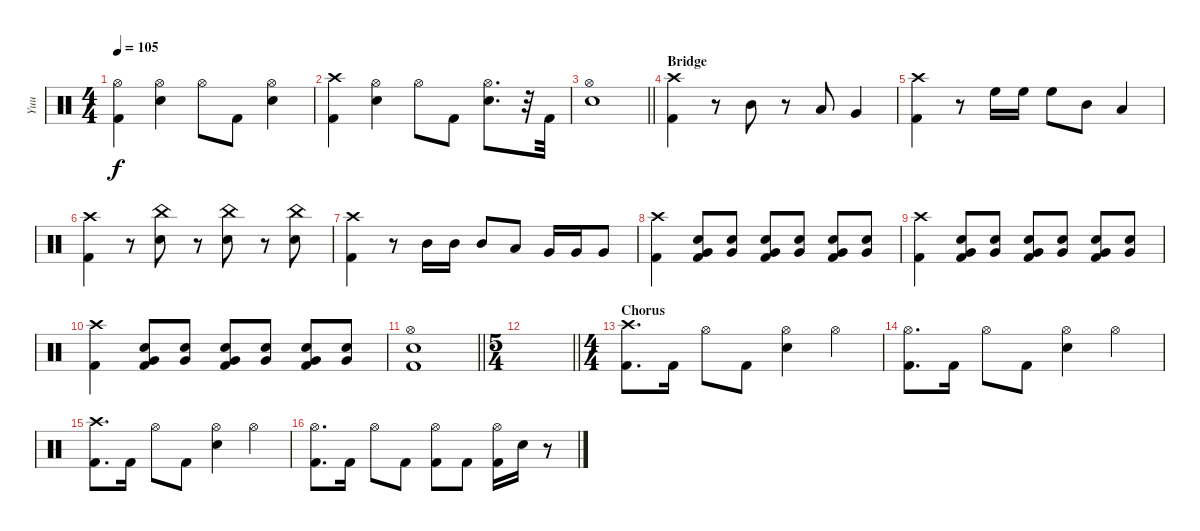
\track ("Yuu" "Yuu") {instrument percussion}
\staff {score}
\articulation defaults
\ts (4 4)
\tempo 105
\clef neutral
\ks c
("Hi-Hat (open)" "Kick (hit) 2").4{dy f} ("Hi-Hat (open)" "Electric Snare (hit)").4 "Hi-Hat (open)".8 "Kick (hit) 2".8 ("Hi-Hat (open)" "Electric Snare (hit)").4 |
("Crash high (hit)" "Kick (hit) 2").4 ("Hi-Hat (open)" "Electric Snare (hit)").4 "Hi-Hat (open)".8 "Kick (hit) 2".8 ("Hi-Hat (open)" "Electric Snare (hit)").8{d} r.32 "Kick (hit) 2".32 |
\barLineRight lightlight
("Hi-Hat (open)" "Electric Snare (hit)").1 |
\section ("" "Bridge")
("Crash high (hit)" "Kick (hit) 2").4 r.8 "Mid Tom (hit)".8 r.8 "Low Tom (hit)".8 "Very Low Tom (hit)".4 |
("Crash high (hit)" "Kick (hit) 2").4 r.8 "High Floor Tom (hit)".16 "High Floor Tom (hit)".16 "High Floor Tom (hit)".8 "Mid Tom (hit)".8 "Low Tom (hit)".4 |
("Crash high (hit)" "Kick (hit) 2").4 r.8 ("China (hit)" "Electric Snare (hit)").8 r.8 ("China (hit)" "Electric Snare (hit)").8 r.8 ("China (hit)" "Electric Snare (hit)").8 |
("Crash high (hit)" "Kick (hit) 2").4 r.8 "Mid Tom (hit)".16 "Mid Tom (hit)".16 "Mid Tom (hit)".8 "Low Tom (hit)".8 "Very Low Tom (hit)".16 "Very Low Tom (hit)".16 "Very Low Tom (hit)".8 |
("Crash high (hit)" "Kick (hit) 2").4 ("Electric Snare (hit)" "Very Low Tom (hit)" "Kick (hit) 2").8 ("Electric Snare (hit)" "Very Low Tom (hit)").8 ("Electric Snare (hit)" "Very Low Tom (hit)" "Kick (hit) 2").8 ("Electric Snare (hit)" "Very Low Tom (hit)").8 ("Electric Snare (hit)" "Very Low Tom (hit)" "Kick (hit) 2").8 ("Electric Snare (hit)" "Very Low Tom (hit)").8 |
("Crash high (hit)" "Kick (hit) 2").4 ("Electric Snare (hit)" "Very Low Tom (hit)" "Kick (hit) 2").8 ("Electric Snare (hit)" "Very Low Tom (hit)").8 ("Electric Snare (hit)" "Very Low Tom (hit)" "Kick (hit) 2").8 ("Electric Snare (hit)" "Very Low Tom (hit)").8 ("Electric Snare (hit)" "Very Low Tom (hit)" "Kick (hit) 2").8 ("Electric Snare (hit)" "Very Low Tom (hit)").8 |
("Crash high (hit)" "Kick (hit) 2").4 ("Electric Snare (hit)" "Very Low Tom (hit)" "Kick (hit) 2").8 ("Electric Snare (hit)" "Very Low Tom (hit)").8 ("Electric Snare (hit)" "Very Low Tom (hit)" "Kick (hit) 2").8 ("Electric Snare (hit)" "Very Low Tom (hit)").8 ("Electric Snare (hit)" "Very Low Tom (hit)" "Kick (hit) 2").8 ("Electric Snare (hit)" "Very Low Tom (hit)").8 |
\barLineRight lightlight
("Hi-Hat (open)" "Electric Snare (hit)" "Kick (hit) 2").1 |
\ts (5 4)
\barLineRight lightlight
|
\ts (4 4)
\section ("" "Chorus")
("Crash high (hit)" "Kick (hit) 2").8{d} "Kick (hit) 2".16 "Hi-Hat (open)".8 "Kick (hit) 2".8 ("Hi-Hat (open)" "Electric Snare (hit)").4 "Hi-Hat (open)".4 |
("Hi-Hat (open)" "Kick (hit) 2").8{d} "Kick (hit) 2".16 "Hi-Hat (open)".8 "Kick (hit) 2".8 ("Hi-Hat (open)" "Electric Snare (hit)").4 "Hi-Hat (open)".4 |
("Crash high (hit)" "Kick (hit) 2").8{d} "Kick (hit) 2".16 "Hi-Hat (open)".8 "Kick (hit) 2".8 ("Hi-Hat (open)" "Electric Snare (hit)").4 "Hi-Hat (open)".4 |
("Hi-Hat (open)" "Kick (hit) 2").8{d} "Kick (hit) 2".16 "Hi-Hat (open)".8 "Kick (hit) 2".8 ("Hi-Hat (open)" "Kick (hit) 2").8 "Kick (hit) 2".8 ("Hi-Hat (open)" "Kick (hit) 2").16 "Electric Snare (hit)".16 r.8
